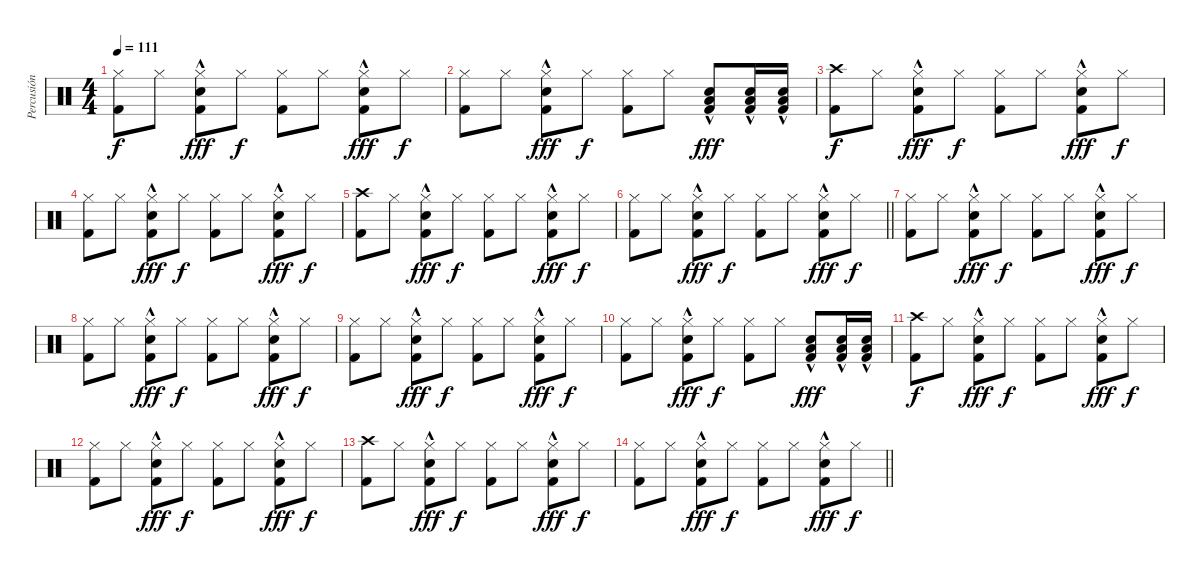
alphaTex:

\track ("Percusión" "Percusión") {instrument percussion}
\staff {score}
\articulation defaults
\ts (4 4)
\tempo 111
\clef neutral
\ks c
("Hi-Hat (closed)" "Kick (hit) 2").8{dy f} "Hi-Hat (closed)".8 ("Electric Snare (hit)"{hac} "Hi-Hat (closed)"{hac} "Kick (hit) 2"{hac}).8{dy fff} "Hi-Hat (closed)".8{dy f} ("Hi-Hat (closed)" "Kick (hit) 2").8 "Hi-Hat (closed)".8 ("Electric Snare (hit)"{hac} "Hi-Hat (closed)"{hac} "Kick (hit) 2"{hac}).8{dy fff} "Hi-Hat (closed)".8{dy f} |
("Hi-Hat (closed)" "Kick (hit) 2").8 "Hi-Hat (closed)".8 ("Electric Snare (hit)"{hac} "Hi-Hat (closed)"{hac} "Kick (hit) 2"{hac}).8{dy fff} "Hi-Hat (closed)".8{dy f} ("Hi-Hat (closed)" "Kick (hit) 2").8 "Hi-Hat (closed)".8 ("Snare (hit) 2"{hac} "Low Floor Tom (hit)"{hac} "Kick (hit) 2"{hac}).8{dy fff} ("Snare (hit) 2"{hac} "Low Floor Tom (hit)"{hac} "Kick (hit) 2"{hac}).16 ("Snare (hit) 2"{hac} "Low Floor Tom (hit)"{hac} "Kick (hit) 2"{hac}).16 |
("Crash high (hit)" "Kick (hit) 2").8{dy f} "Hi-Hat (closed)".8 ("Electric Snare (hit)"{hac} "Hi-Hat (closed)"{hac} "Kick (hit) 2"{hac}).8{dy fff} "Hi-Hat (closed)".8{dy f} ("Hi-Hat (closed)" "Kick (hit) 2").8 "Hi-Hat (closed)".8 ("Electric Snare (hit)"{hac} "Hi-Hat (closed)"{hac} "Kick (hit) 2"{hac}).8{dy fff} "Hi-Hat (closed)".8{dy f} |
("Hi-Hat (closed)" "Kick (hit) 2").8 "Hi-Hat (closed)".8 ("Electric Snare (hit)"{hac} "Hi-Hat (closed)"{hac} "Kick (hit) 2"{hac}).8{dy fff} "Hi-Hat (closed)".8{dy f} ("Hi-Hat (closed)" "Kick (hit) 2").8 "Hi-Hat (closed)".8 ("Electric Snare (hit)"{hac} "Hi-Hat (closed)"{hac} "Kick (hit) 2"{hac}).8{dy fff} "Hi-Hat (closed)".8{dy f} |
("Crash high (hit)" "Kick (hit) 2").8 "Hi-Hat (closed)".8 ("Electric Snare (hit)"{hac} "Hi-Hat (closed)"{hac} "Kick (hit) 2"{hac}).8{dy fff} "Hi-Hat (closed)".8{dy f} ("Hi-Hat (closed)" "Kick (hit) 2").8 "Hi-Hat (closed)".8 ("Electric Snare (hit)"{hac} "Hi-Hat (closed)"{hac} "Kick (hit) 2"{hac}).8{dy fff} "Hi-Hat (closed)".8{dy f} |
\barLineRight lightlight
("Hi-Hat (closed)" "Kick (hit) 2").8 "Hi-Hat (closed)".8 ("Electric Snare (hit)"{hac} "Hi-Hat (closed)"{hac} "Kick (hit) 2"{hac}).8{dy fff} "Hi-Hat (closed)".8{dy f} ("Hi-Hat (closed)" "Kick (hit) 2").8 "Hi-Hat (closed)".8 ("Electric Snare (hit)"{hac} "Hi-Hat (closed)"{hac} "Kick (hit) 2"{hac}).8{dy fff} "Hi-Hat (closed)".8{dy f} |
("Hi-Hat (closed)" "Kick (hit) 2").8 "Hi-Hat (closed)".8 ("Electric Snare (hit)"{hac} "Hi-Hat (closed)"{hac} "Kick (hit) 2"{hac}).8{dy fff} "Hi-Hat (closed)".8{dy f} ("Hi-Hat (closed)" "Kick (hit) 2").8 "Hi-Hat (closed)".8 ("Electric Snare (hit)"{hac} "Hi-Hat (closed)"{hac} "Kick (hit) 2"{hac}).8{dy fff} "Hi-Hat (closed)".8{dy f} |
("Hi-Hat (closed)" "Kick (hit) 2").8 "Hi-Hat (closed)".8 ("Electric Snare (hit)"{hac} "Hi-Hat (closed)"{hac} "Kick (hit) 2"{hac}).8{dy fff} "Hi-Hat (closed)".8{dy f} ("Hi-Hat (closed)" "Kick (hit) 2").8 "Hi-Hat (closed)".8 ("Electric Snare (hit)"{hac} "Hi-Hat (closed)"{hac} "Kick (hit) 2"{hac}).8{dy fff} "Hi-Hat (closed)".8{dy f} |
("Hi-Hat (closed)" "Kick (hit) 2").8 "Hi-Hat (closed)".8 ("Electric Snare (hit)"{hac} "Hi-Hat (closed)"{hac} "Kick (hit) 2"{hac}).8{dy fff} "Hi-Hat (closed)".8{dy f} ("Hi-Hat (closed)" "Kick (hit) 2").8 "Hi-Hat (closed)".8 ("Electric Snare (hit)"{hac} "Hi-Hat (closed)"{hac} "Kick (hit) 2"{hac}).8{dy fff} "Hi-Hat (closed)".8{dy f} |
("Hi-Hat (closed)" "Kick (hit) 2").8 "Hi-Hat (closed)".8 ("Electric Snare (hit)"{hac} "Hi-Hat (closed)"{hac} "Kick (hit) 2"{hac}).8{dy fff} "Hi-Hat (closed)".8{dy f} ("Hi-Hat (closed)" "Kick (hit) 2").8 "Hi-Hat (closed)".8 ("Snare (hit) 2"{hac} "Low Floor Tom (hit)"{hac} "Kick (hit) 2"{hac}).8{dy fff} ("Snare (hit) 2"{hac} "Low Floor Tom (hit)"{hac} "Kick (hit) 2"{hac}).16 ("Snare (hit) 2"{hac} "Low Floor Tom (hit)"{hac} "Kick (hit) 2"{hac}).16 |
("Crash high (hit)" "Kick (hit) 2").8{dy f} "Hi-Hat (closed)".8 ("Electric Snare (hit)"{hac} "Hi-Hat (closed)"{hac} "Kick (hit) 2"{hac}).8{dy fff} "Hi-Hat (closed)".8{dy f} ("Hi-Hat (closed)" "Kick (hit) 2").8 "Hi-Hat (closed)".8 ("Electric Snare (hit)"{hac} "Hi-Hat (closed)"{hac} "Kick (hit) 2"{hac}).8{dy fff} "Hi-Hat (closed)".8{dy f} |
("Hi-Hat (closed)" "Kick (hit) 2").8 "Hi-Hat (closed)".8 ("Electric Snare (hit)"{hac} "Hi-Hat (closed)"{hac} "Kick (hit) 2"{hac}).8{dy fff} "Hi-Hat (closed)".8{dy f} ("Hi-Hat (closed)" "Kick (hit) 2").8 "Hi-Hat (closed)".8 ("Electric Snare (hit)"{hac} "Hi-Hat (closed)"{hac} "Kick (hit) 2"{hac}).8{dy fff} "Hi-Hat (closed)".8{dy f} |
("Crash high (hit)" "Kick (hit) 2").8 "Hi-Hat (closed)".8 ("Electric Snare (hit)"{hac} "Hi-Hat (closed)"{hac} "Kick (hit) 2"{hac}).8{dy fff} "Hi-Hat (closed)".8{dy f} ("Hi-Hat (closed)" "Kick (hit) 2").8 "Hi-Hat (closed)".8 ("Electric Snare (hit)"{hac} "Hi-Hat (closed)"{hac} "Kick (hit) 2"{hac}).8{dy fff} "Hi-Hat (closed)".8{dy f} |
\barLineRight lightlight
("Hi-Hat (closed)" "Kick (hit) 2").8 "Hi-Hat (closed)".8 ("Electric Snare (hit)"{hac} "Hi-Hat (closed)"{hac} "Kick (hit) 2"{hac}).8{dy fff} "Hi-Hat (closed)".8{dy f} ("Hi-Hat (closed)" "Kick (hit) 2").8 "Hi-Hat (closed)".8 ("Electric Snare (hit)"{hac} "Hi-Hat (closed)"{hac} "Kick (hit) 2"{hac}).8{dy fff} "Hi-Hat (closed)".8{dy f}
